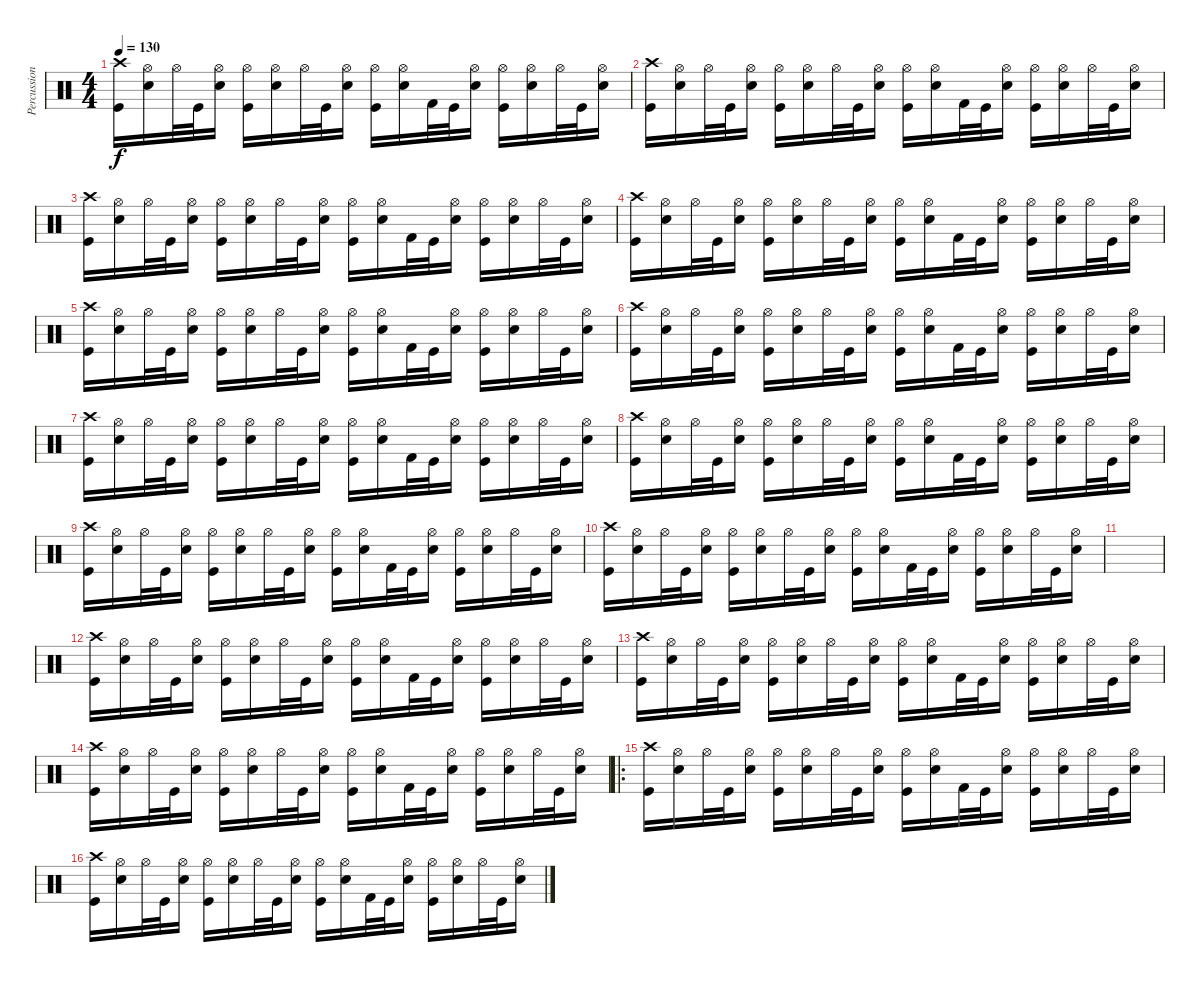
\track ("Percussion" "Percussion") {instrument percussion}
\staff {score}
\articulation defaults
\ts (4 4)
\tempo 130
\clef neutral
\ks c
("Crash high (hit)" "Kick (hit)").16{dy f} ("Hi-Hat (open)" "Snare (hit) 2").16 "Hi-Hat (open)".32 "Kick (hit)".32 ("Hi-Hat (open)" "Snare (hit) 2").16 ("Hi-Hat (open)" "Kick (hit)").16 ("Hi-Hat (open)" "Snare (hit) 2").16 "Hi-Hat (open)".32 "Kick (hit)".32 ("Hi-Hat (open)" "Snare (hit) 2").16 ("Hi-Hat (open)" "Kick (hit)").16 ("Hi-Hat (open)" "Snare (hit) 2").16 "Kick (hit) 2".32 "Kick (hit)".32 ("Hi-Hat (open)" "Snare (hit) 2").16 ("Hi-Hat (open)" "Kick (hit)").16 ("Hi-Hat (open)" "Snare (hit) 2").16 "Hi-Hat (open)".32 "Kick (hit)".32 ("Hi-Hat (open)" "Snare (hit) 2").16 |
("Crash high (hit)" "Kick (hit)").16 ("Hi-Hat (open)" "Snare (hit) 2").16 "Hi-Hat (open)".32 "Kick (hit)".32 ("Hi-Hat (open)" "Snare (hit) 2").16 ("Hi-Hat (open)" "Kick (hit)").16 ("Hi-Hat (open)" "Snare (hit) 2").16 "Hi-Hat (open)".32 "Kick (hit)".32 ("Hi-Hat (open)" "Snare (hit) 2").16 ("Hi-Hat (open)" "Kick (hit)").16 ("Hi-Hat (open)" "Snare (hit) 2").16 "Kick (hit) 2".32 "Kick (hit)".32 ("Hi-Hat (open)" "Snare (hit) 2").16 ("Hi-Hat (open)" "Kick (hit)").16 ("Hi-Hat (open)" "Snare (hit) 2").16 "Hi-Hat (open)".32 "Kick (hit)".32 ("Hi-Hat (open)" "Snare (hit) 2").16 |
("Crash high (hit)" "Kick (hit)").16 ("Hi-Hat (open)" "Snare (hit) 2").16 "Hi-Hat (open)".32 "Kick (hit)".32 ("Hi-Hat (open)" "Snare (hit) 2").16 ("Hi-Hat (open)" "Kick (hit)").16 ("Hi-Hat (open)" "Snare (hit) 2").16 "Hi-Hat (open)".32 "Kick (hit)".32 ("Hi-Hat (open)" "Snare (hit) 2").16 ("Hi-Hat (open)" "Kick (hit)").16 ("Hi-Hat (open)" "Snare (hit) 2").16 "Kick (hit) 2".32 "Kick (hit)".32 ("Hi-Hat (open)" "Snare (hit) 2").16 ("Hi-Hat (open)" "Kick (hit)").16 ("Hi-Hat (open)" "Snare (hit) 2").16 "Hi-Hat (open)".32 "Kick (hit)".32 ("Hi-Hat (open)" "Snare (hit) 2").16 |
("Crash high (hit)" "Kick (hit)").16 ("Hi-Hat (open)" "Snare (hit) 2").16 "Hi-Hat (open)".32 "Kick (hit)".32 ("Hi-Hat (open)" "Snare (hit) 2").16 ("Hi-Hat (open)" "Kick (hit)").16 ("Hi-Hat (open)" "Snare (hit) 2").16 "Hi-Hat (open)".32 "Kick (hit)".32 ("Hi-Hat (open)" "Snare (hit) 2").16 ("Hi-Hat (open)" "Kick (hit)").16 ("Hi-Hat (open)" "Snare (hit) 2").16 "Kick (hit) 2".32 "Kick (hit)".32 ("Hi-Hat (open)" "Snare (hit) 2").16 ("Hi-Hat (open)" "Kick (hit)").16 ("Hi-Hat (open)" "Snare (hit) 2").16 "Hi-Hat (open)".32 "Kick (hit)".32 ("Hi-Hat (open)" "Snare (hit) 2").16 |
("Crash high (hit)" "Kick (hit)").16 ("Hi-Hat (open)" "Snare (hit) 2").16 "Hi-Hat (open)".32 "Kick (hit)".32 ("Hi-Hat (open)" "Snare (hit) 2").16 ("Hi-Hat (open)" "Kick (hit)").16 ("Hi-Hat (open)" "Snare (hit) 2").16 "Hi-Hat (open)".32 "Kick (hit)".32 ("Hi-Hat (open)" "Snare (hit) 2").16 ("Hi-Hat (open)" "Kick (hit)").16 ("Hi-Hat (open)" "Snare (hit) 2").16 "Kick (hit) 2".32 "Kick (hit)".32 ("Hi-Hat (open)" "Snare (hit) 2").16 ("Hi-Hat (open)" "Kick (hit)").16 ("Hi-Hat (open)" "Snare (hit) 2").16 "Hi-Hat (open)".32 "Kick (hit)".32 ("Hi-Hat (open)" "Snare (hit) 2").16 |
("Crash high (hit)" "Kick (hit)").16 ("Hi-Hat (open)" "Snare (hit) 2").16 "Hi-Hat (open)".32 "Kick (hit)".32 ("Hi-Hat (open)" "Snare (hit) 2").16 ("Hi-Hat (open)" "Kick (hit)").16 ("Hi-Hat (open)" "Snare (hit) 2").16 "Hi-Hat (open)".32 "Kick (hit)".32 ("Hi-Hat (open)" "Snare (hit) 2").16 ("Hi-Hat (open)" "Kick (hit)").16 ("Hi-Hat (open)" "Snare (hit) 2").16 "Kick (hit) 2".32 "Kick (hit)".32 ("Hi-Hat (open)" "Snare (hit) 2").16 ("Hi-Hat (open)" "Kick (hit)").16 ("Hi-Hat (open)" "Snare (hit) 2").16 "Hi-Hat (open)".32 "Kick (hit)".32 ("Hi-Hat (open)" "Snare (hit) 2").16 |
("Crash high (hit)" "Kick (hit)").16 ("Hi-Hat (open)" "Snare (hit) 2").16 "Hi-Hat (open)".32 "Kick (hit)".32 ("Hi-Hat (open)" "Snare (hit) 2").16 ("Hi-Hat (open)" "Kick (hit)").16 ("Hi-Hat (open)" "Snare (hit) 2").16 "Hi-Hat (open)".32 "Kick (hit)".32 ("Hi-Hat (open)" "Snare (hit) 2").16 ("Hi-Hat (open)" "Kick (hit)").16 ("Hi-Hat (open)" "Snare (hit) 2").16 "Kick (hit) 2".32 "Kick (hit)".32 ("Hi-Hat (open)" "Snare (hit) 2").16 ("Hi-Hat (open)" "Kick (hit)").16 ("Hi-Hat (open)" "Snare (hit) 2").16 "Hi-Hat (open)".32 "Kick (hit)".32 ("Hi-Hat (open)" "Snare (hit) 2").16 |
("Crash high (hit)" "Kick (hit)").16 ("Hi-Hat (open)" "Snare (hit) 2").16 "Hi-Hat (open)".32 "Kick (hit)".32 ("Hi-Hat (open)" "Snare (hit) 2").16 ("Hi-Hat (open)" "Kick (hit)").16 ("Hi-Hat (open)" "Snare (hit) 2").16 "Hi-Hat (open)".32 "Kick (hit)".32 ("Hi-Hat (open)" "Snare (hit) 2").16 ("Hi-Hat (open)" "Kick (hit)").16 ("Hi-Hat (open)" "Snare (hit) 2").16 "Kick (hit) 2".32 "Kick (hit)".32 ("Hi-Hat (open)" "Snare (hit) 2").16 ("Hi-Hat (open)" "Kick (hit)").16 ("Hi-Hat (open)" "Snare (hit) 2").16 "Hi-Hat (open)".32 "Kick (hit)".32 ("Hi-Hat (open)" "Snare (hit) 2").16 |
("Crash high (hit)" "Kick (hit)").16 ("Hi-Hat (open)" "Snare (hit) 2").16 "Hi-Hat (open)".32 "Kick (hit)".32 ("Hi-Hat (open)" "Snare (hit) 2").16 ("Hi-Hat (open)" "Kick (hit)").16 ("Hi-Hat (open)" "Snare (hit) 2").16 "Hi-Hat (open)".32 "Kick (hit)".32 ("Hi-Hat (open)" "Snare (hit) 2").16 ("Hi-Hat (open)" "Kick (hit)").16 ("Hi-Hat (open)" "Snare (hit) 2").16 "Kick (hit) 2".32 "Kick (hit)".32 ("Hi-Hat (open)" "Snare (hit) 2").16 ("Hi-Hat (open)" "Kick (hit)").16 ("Hi-Hat (open)" "Snare (hit) 2").16 "Hi-Hat (open)".32 "Kick (hit)".32 ("Hi-Hat (open)" "Snare (hit) 2").16 |
("Crash high (hit)" "Kick (hit)").16 ("Hi-Hat (open)" "Snare (hit) 2").16 "Hi-Hat (open)".32 "Kick (hit)".32 ("Hi-Hat (open)" "Snare (hit) 2").16 ("Hi-Hat (open)" "Kick (hit)").16 ("Hi-Hat (open)" "Snare (hit) 2").16 "Hi-Hat (open)".32 "Kick (hit)".32 ("Hi-Hat (open)" "Snare (hit) 2").16 ("Hi-Hat (open)" "Kick (hit)").16 ("Hi-Hat (open)" "Snare (hit) 2").16 "Kick (hit) 2".32 "Kick (hit)".32 ("Hi-Hat (open)" "Snare (hit) 2").16 ("Hi-Hat (open)" "Kick (hit)").16 ("Hi-Hat (open)" "Snare (hit) 2").16 "Hi-Hat (open)".32 "Kick (hit)".32 ("Hi-Hat (open)" "Snare (hit) 2").16 |
|
("Crash high (hit)" "Kick (hit)").16 ("Hi-Hat (open)" "Snare (hit) 2").16 "Hi-Hat (open)".32 "Kick (hit)".32 ("Hi-Hat (open)" "Snare (hit) 2").16 ("Hi-Hat (open)" "Kick (hit)").16 ("Hi-Hat (open)" "Snare (hit) 2").16 "Hi-Hat (open)".32 "Kick (hit)".32 ("Hi-Hat (open)" "Snare (hit) 2").16 ("Hi-Hat (open)" "Kick (hit)").16 ("Hi-Hat (open)" "Snare (hit) 2").16 "Kick (hit) 2".32 "Kick (hit)".32 ("Hi-Hat (open)" "Snare (hit) 2").16 ("Hi-Hat (open)" "Kick (hit)").16 ("Hi-Hat (open)" "Snare (hit) 2").16 "Hi-Hat (open)".32 "Kick (hit)".32 ("Hi-Hat (open)" "Snare (hit) 2").16 |
("Crash high (hit)" "Kick (hit)").16 ("Hi-Hat (open)" "Snare (hit) 2").16 "Hi-Hat (open)".32 "Kick (hit)".32 ("Hi-Hat (open)" "Snare (hit) 2").16 ("Hi-Hat (open)" "Kick (hit)").16 ("Hi-Hat (open)" "Snare (hit) 2").16 "Hi-Hat (open)".32 "Kick (hit)".32 ("Hi-Hat (open)" "Snare (hit) 2").16 ("Hi-Hat (open)" "Kick (hit)").16 ("Hi-Hat (open)" "Snare (hit) 2").16 "Kick (hit) 2".32 "Kick (hit)".32 ("Hi-Hat (open)" "Snare (hit) 2").16 ("Hi-Hat (open)" "Kick (hit)").16 ("Hi-Hat (open)" "Snare (hit) 2").16 "Hi-Hat (open)".32 "Kick (hit)".32 ("Hi-Hat (open)" "Snare (hit) 2").16 |
("Crash high (hit)" "Kick (hit)").16 ("Hi-Hat (open)" "Snare (hit) 2").16 "Hi-Hat (open)".32 "Kick (hit)".32 ("Hi-Hat (open)" "Snare (hit) 2").16 ("Hi-Hat (open)" "Kick (hit)").16 ("Hi-Hat (open)" "Snare (hit) 2").16 "Hi-Hat (open)".32 "Kick (hit)".32 ("Hi-Hat (open)" "Snare (hit) 2").16 ("Hi-Hat (open)" "Kick (hit)").16 ("Hi-Hat (open)" "Snare (hit) 2").16 "Kick (hit) 2".32 "Kick (hit)".32 ("Hi-Hat (open)" "Snare (hit) 2").16 ("Hi-Hat (open)" "Kick (hit)").16 ("Hi-Hat (open)" "Snare (hit) 2").16 "Hi-Hat (open)".32 "Kick (hit)".32 ("Hi-Hat (open)" "Snare (hit) 2").16 |
\ro
("Crash high (hit)" "Kick (hit)").16 ("Hi-Hat (open)" "Snare (hit) 2").16 "Hi-Hat (open)".32 "Kick (hit)".32 ("Hi-Hat (open)" "Snare (hit) 2").16 ("Hi-Hat (open)" "Kick (hit)").16 ("Hi-Hat (open)" "Snare (hit) 2").16 "Hi-Hat (open)".32 "Kick (hit)".32 ("Hi-Hat (open)" "Snare (hit) 2").16 ("Hi-Hat (open)" "Kick (hit)").16 ("Hi-Hat (open)" "Snare (hit) 2").16 "Kick (hit) 2".32 "Kick (hit)".32 ("Hi-Hat (open)" "Snare (hit) 2").16 ("Hi-Hat (open)" "Kick (hit)").16 ("Hi-Hat (open)" "Snare (hit) 2").16 "Hi-Hat (open)".32 "Kick (hit)".32 ("Hi-Hat (open)" "Snare (hit) 2").16 |
("Crash high (hit)" "Kick (hit)").16 ("Hi-Hat (open)" "Snare (hit) 2").16 "Hi-Hat (open)".32 "Kick (hit)".32 ("Hi-Hat (open)" "Snare (hit) 2").16 ("Hi-Hat (open)" "Kick (hit)").16 ("Hi-Hat (open)" "Snare (hit) 2").16 "Hi-Hat (open)".32 "Kick (hit)".32 ("Hi-Hat (open)" "Snare (hit) 2").16 ("Hi-Hat (open)" "Kick (hit)").16 ("Hi-Hat (open)" "Snare (hit) 2").16 "Kick (hit) 2".32 "Kick (hit)".32 ("Hi-Hat (open)" "Snare (hit) 2").16 ("Hi-Hat (open)" "Kick (hit)").16 ("Hi-Hat (open)" "Snare (hit) 2").16 "Hi-Hat (open)".32 "Kick (hit)".32 ("Hi-Hat (open)" "Snare (hit) 2").16
